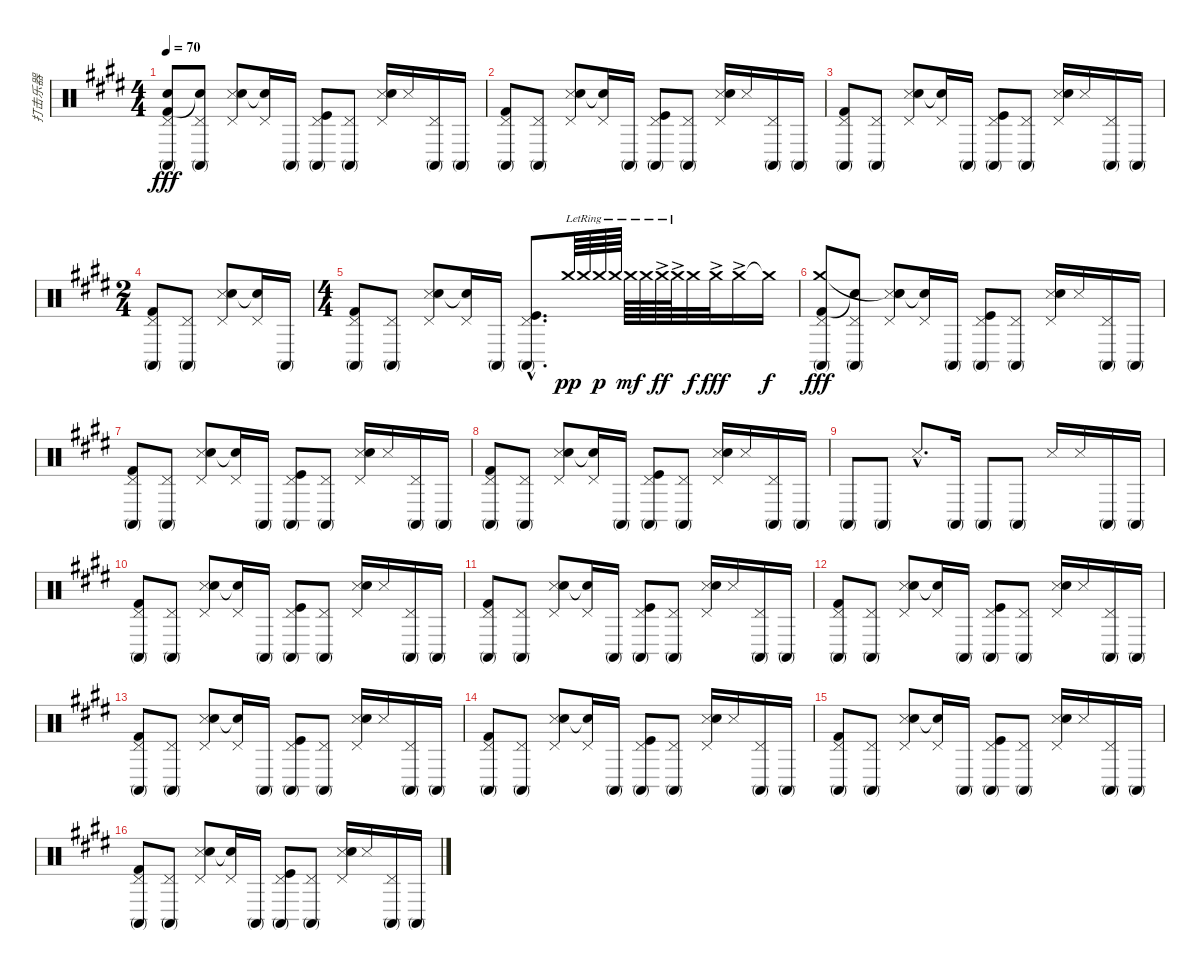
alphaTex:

\track ("打击乐器" "打击乐器") {instrument percussion}
\staff {score}
\articulation defaults
\ts (4 4)
\tempo 70
\clef neutral
\ks e
("Conga high (mute)" "Pedal Hi-Hat (hit)" "Kick (hit) 2" "Snare (hit)").8{dy fff} ("Conga high (mute)" "Pedal Hi-Hat (hit)" "Snare (hit)"{t}).8 ("Metronome (hit)" "Pedal Hi-Hat (hit)" "Hand Clap (hit)").8 ("Snare (hit)"{t} "Pedal Hi-Hat (hit)").16 "Conga high (mute)".16 ("Conga high (mute)" "Pedal Hi-Hat (hit)" "Kick (hit)").8 ("Conga high (mute)" "Pedal Hi-Hat (hit)").8 ("Metronome (hit)" "Pedal Hi-Hat (hit)" "Hand Clap (hit)").16 "Metronome (hit)".16 ("Conga high (mute)" "Pedal Hi-Hat (hit)").16 "Conga high (mute)".16 |
("Conga high (mute)" "Pedal Hi-Hat (hit)" "Kick (hit) 2").8 ("Conga high (mute)" "Pedal Hi-Hat (hit)").8 ("Metronome (hit)" "Pedal Hi-Hat (hit)" "Hand Clap (hit)").8 ("Snare (hit)"{t} "Pedal Hi-Hat (hit)").16 "Conga high (mute)".16 ("Conga high (mute)" "Pedal Hi-Hat (hit)" "Kick (hit)").8 ("Conga high (mute)" "Pedal Hi-Hat (hit)").8 ("Metronome (hit)" "Pedal Hi-Hat (hit)" "Hand Clap (hit)").16 "Metronome (hit)".16 ("Conga high (mute)" "Pedal Hi-Hat (hit)").16 "Conga high (mute)".16 |
("Conga high (mute)" "Pedal Hi-Hat (hit)" "Kick (hit) 2").8 ("Conga high (mute)" "Pedal Hi-Hat (hit)").8 ("Metronome (hit)" "Pedal Hi-Hat (hit)" "Hand Clap (hit)").8 ("Snare (hit)"{t} "Pedal Hi-Hat (hit)").16 "Conga high (mute)".16 ("Conga high (mute)" "Pedal Hi-Hat (hit)" "Kick (hit)").8 ("Conga high (mute)" "Pedal Hi-Hat (hit)").8 ("Metronome (hit)" "Pedal Hi-Hat (hit)" "Hand Clap (hit)").16 "Metronome (hit)".16 ("Conga high (mute)" "Pedal Hi-Hat (hit)").16 "Conga high (mute)".16 |
\ts (2 4)
("Conga high (mute)" "Pedal Hi-Hat (hit)" "Kick (hit) 2").8 ("Conga high (mute)" "Pedal Hi-Hat (hit)").8 ("Metronome (hit)" "Pedal Hi-Hat (hit)" "Hand Clap (hit)").8 ("Snare (hit)"{t} "Pedal Hi-Hat (hit)").16 "Conga high (mute)".16 |
\ts (4 4)
("Conga high (mute)" "Pedal Hi-Hat (hit)" "Kick (hit) 2").8 ("Conga high (mute)" "Pedal Hi-Hat (hit)").8 ("Metronome (hit)" "Pedal Hi-Hat (hit)" "Hand Clap (hit)").8 ("Snare (hit)"{t} "Pedal Hi-Hat (hit)").16 "Conga high (mute)".16 ("Conga high (mute)"{hac} "Pedal Hi-Hat (hit)"{hac} "Kick (hit)"{hac}).8{d} "Crash medium (hit)".64{dy pp} "Crash medium (hit)"{lr}.64 "Crash medium (hit)"{lr}.64{dy p} "Crash medium (hit)"{lr}.64 "Crash medium (hit)"{lr}.64{dy mf} "Crash medium (hit)"{lr}.64 "Crash medium (hit)"{ac lr}.64{dy ff} "Crash medium (hit)"{ac lr}.64 "Crash medium (hit)".32{dy f} "Crash medium (hit)"{ac}.32{dy fff} "Crash medium (hit)"{ac}.16 "Crash medium (hit)"{t}.16{dy f} |
("Conga high (mute)" "Pedal Hi-Hat (hit)" "Kick (hit) 2" "Crash medium (hit)").8{dy fff} ("Conga high (mute)" "Pedal Hi-Hat (hit)" "Snare (hit)"{t}).8 ("Metronome (hit)" "Pedal Hi-Hat (hit)" "Hand Clap (hit)" "Snare (hit)"{t}).8 ("Snare (hit)"{t} "Pedal Hi-Hat (hit)").16 "Conga high (mute)".16 ("Conga high (mute)" "Pedal Hi-Hat (hit)" "Kick (hit)").8 ("Conga high (mute)" "Pedal Hi-Hat (hit)").8 ("Metronome (hit)" "Pedal Hi-Hat (hit)" "Hand Clap (hit)").16 "Metronome (hit)".16 ("Conga high (mute)" "Pedal Hi-Hat (hit)").16 "Conga high (mute)".16 |
("Conga high (mute)" "Pedal Hi-Hat (hit)" "Kick (hit) 2").8 ("Conga high (mute)" "Pedal Hi-Hat (hit)").8 ("Metronome (hit)" "Pedal Hi-Hat (hit)" "Hand Clap (hit)").8 ("Snare (hit)"{t} "Pedal Hi-Hat (hit)").16 "Conga high (mute)".16 ("Conga high (mute)" "Pedal Hi-Hat (hit)" "Kick (hit)").8 ("Conga high (mute)" "Pedal Hi-Hat (hit)").8 ("Metronome (hit)" "Pedal Hi-Hat (hit)" "Hand Clap (hit)").16 "Metronome (hit)".16 ("Conga high (mute)" "Pedal Hi-Hat (hit)").16 "Conga high (mute)".16 |
("Conga high (mute)" "Pedal Hi-Hat (hit)" "Kick (hit) 2").8 ("Conga high (mute)" "Pedal Hi-Hat (hit)").8 ("Metronome (hit)" "Pedal Hi-Hat (hit)" "Hand Clap (hit)").8 ("Snare (hit)"{t} "Pedal Hi-Hat (hit)").16 "Conga high (mute)".16 ("Conga high (mute)" "Pedal Hi-Hat (hit)" "Kick (hit)").8 ("Conga high (mute)" "Pedal Hi-Hat (hit)").8 ("Metronome (hit)" "Pedal Hi-Hat (hit)" "Hand Clap (hit)").16 "Metronome (hit)".16 ("Conga high (mute)" "Pedal Hi-Hat (hit)").16 "Conga high (mute)".16 |
"Conga high (mute)".8 "Conga high (mute)".8 "Metronome (hit)"{hac}.8{d} "Conga high (mute)".16 "Conga high (mute)".8 "Conga high (mute)".8 "Metronome (hit)".16 "Metronome (hit)".16 "Conga high (mute)".16 "Conga high (mute)".16 |
("Conga high (mute)" "Pedal Hi-Hat (hit)" "Kick (hit) 2").8 ("Conga high (mute)" "Pedal Hi-Hat (hit)").8 ("Metronome (hit)" "Pedal Hi-Hat (hit)" "Hand Clap (hit)").8 ("Snare (hit)"{t} "Pedal Hi-Hat (hit)").16 "Conga high (mute)".16 ("Conga high (mute)" "Pedal Hi-Hat (hit)" "Kick (hit)").8 ("Conga high (mute)" "Pedal Hi-Hat (hit)").8 ("Metronome (hit)" "Pedal Hi-Hat (hit)" "Hand Clap (hit)").16 "Metronome (hit)".16 ("Conga high (mute)" "Pedal Hi-Hat (hit)").16 "Conga high (mute)".16 |
("Conga high (mute)" "Pedal Hi-Hat (hit)" "Kick (hit) 2").8 ("Conga high (mute)" "Pedal Hi-Hat (hit)").8 ("Metronome (hit)" "Pedal Hi-Hat (hit)" "Hand Clap (hit)").8 ("Snare (hit)"{t} "Pedal Hi-Hat (hit)").16 "Conga high (mute)".16 ("Conga high (mute)" "Pedal Hi-Hat (hit)" "Kick (hit)").8 ("Conga high (mute)" "Pedal Hi-Hat (hit)").8 ("Metronome (hit)" "Pedal Hi-Hat (hit)" "Hand Clap (hit)").16 "Metronome (hit)".16 ("Conga high (mute)" "Pedal Hi-Hat (hit)").16 "Conga high (mute)".16 |
("Conga high (mute)" "Pedal Hi-Hat (hit)" "Kick (hit) 2").8 ("Conga high (mute)" "Pedal Hi-Hat (hit)").8 ("Metronome (hit)" "Pedal Hi-Hat (hit)" "Hand Clap (hit)").8 ("Snare (hit)"{t} "Pedal Hi-Hat (hit)").16 "Conga high (mute)".16 ("Conga high (mute)" "Pedal Hi-Hat (hit)" "Kick (hit)").8 ("Conga high (mute)" "Pedal Hi-Hat (hit)").8 ("Metronome (hit)" "Pedal Hi-Hat (hit)" "Hand Clap (hit)").16 "Metronome (hit)".16 ("Conga high (mute)" "Pedal Hi-Hat (hit)").16 "Conga high (mute)".16 |
("Conga high (mute)" "Pedal Hi-Hat (hit)" "Kick (hit) 2").8 ("Conga high (mute)" "Pedal Hi-Hat (hit)").8 ("Metronome (hit)" "Pedal Hi-Hat (hit)" "Hand Clap (hit)").8 ("Snare (hit)"{t} "Pedal Hi-Hat (hit)").16 "Conga high (mute)".16 ("Conga high (mute)" "Pedal Hi-Hat (hit)" "Kick (hit)").8 ("Conga high (mute)" "Pedal Hi-Hat (hit)").8 ("Metronome (hit)" "Pedal Hi-Hat (hit)" "Hand Clap (hit)").16 "Metronome (hit)".16 ("Conga high (mute)" "Pedal Hi-Hat (hit)").16 "Conga high (mute)".16 |
("Conga high (mute)" "Pedal Hi-Hat (hit)" "Kick (hit) 2").8 ("Conga high (mute)" "Pedal Hi-Hat (hit)").8 ("Metronome (hit)" "Pedal Hi-Hat (hit)" "Hand Clap (hit)").8 ("Snare (hit)"{t} "Pedal Hi-Hat (hit)").16 "Conga high (mute)".16 ("Conga high (mute)" "Pedal Hi-Hat (hit)" "Kick (hit)").8 ("Conga high (mute)" "Pedal Hi-Hat (hit)").8 ("Metronome (hit)" "Pedal Hi-Hat (hit)" "Hand Clap (hit)").16 "Metronome (hit)".16 ("Conga high (mute)" "Pedal Hi-Hat (hit)").16 "Conga high (mute)".16 |
("Conga high (mute)" "Pedal Hi-Hat (hit)" "Kick (hit) 2").8 ("Conga high (mute)" "Pedal Hi-Hat (hit)").8 ("Metronome (hit)" "Pedal Hi-Hat (hit)" "Hand Clap (hit)").8 ("Snare (hit)"{t} "Pedal Hi-Hat (hit)").16 "Conga high (mute)".16 ("Conga high (mute)" "Pedal Hi-Hat (hit)" "Kick (hit)").8 ("Conga high (mute)" "Pedal Hi-Hat (hit)").8 ("Metronome (hit)" "Pedal Hi-Hat (hit)" "Hand Clap (hit)").16 "Metronome (hit)".16 ("Conga high (mute)" "Pedal Hi-Hat (hit)").16 "Conga high (mute)".16 |
("Conga high (mute)" "Pedal Hi-Hat (hit)" "Kick (hit) 2").8 ("Conga high (mute)" "Pedal Hi-Hat (hit)").8 ("Metronome (hit)" "Pedal Hi-Hat (hit)" "Hand Clap (hit)").8 ("Snare (hit)"{t} "Pedal Hi-Hat (hit)").16 "Conga high (mute)".16 ("Conga high (mute)" "Pedal Hi-Hat (hit)" "Kick (hit)").8 ("Conga high (mute)" "Pedal Hi-Hat (hit)").8 ("Metronome (hit)" "Pedal Hi-Hat (hit)" "Hand Clap (hit)").16 "Metronome (hit)".16 ("Conga high (mute)" "Pedal Hi-Hat (hit)").16 "Conga high (mute)".16
